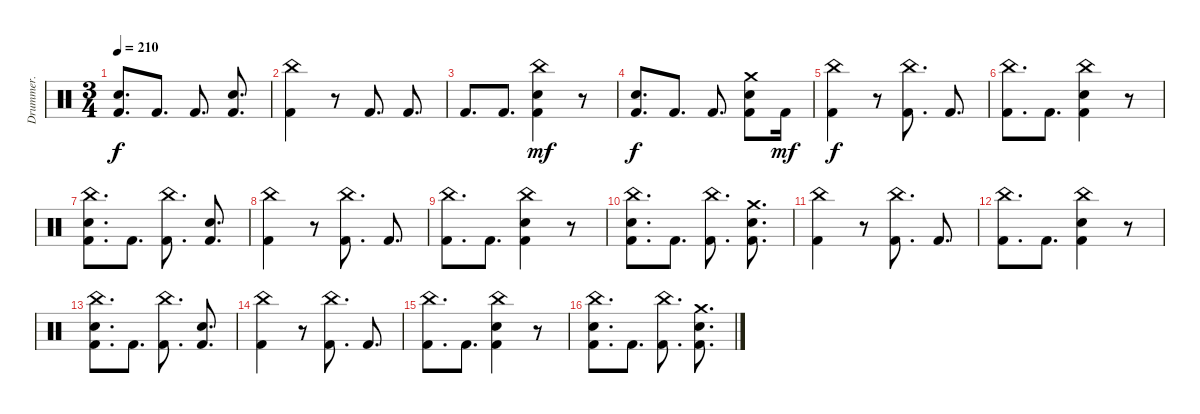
\track ("Drummer." "Drummer.") {instrument percussion}
\staff {score}
\articulation defaults
\ts (3 4)
\tempo 210
\clef neutral
\ks c
("Snare (hit)" "Kick (hit) 2").8{d dy f} "Kick (hit) 2".8{d} "Kick (hit) 2".8{d} ("Snare (hit) 2" "Kick (hit) 2").8{d} |
("China (hit)" "Kick (hit) 2").4 r.8 "Kick (hit) 2".8{d} "Kick (hit) 2".8{d} |
"Kick (hit) 2".8{d} "Kick (hit) 2".8{d} ("China (hit)" "Snare (hit) 2" "Kick (hit) 2").4{dy mf} r.8 |
("Snare (hit)" "Kick (hit) 2").8{d dy f} "Kick (hit) 2".8{d} "Kick (hit) 2".8{d} ("Crash medium (hit)" "Snare (hit) 2" "Kick (hit) 2").8 "Kick (hit) 2".16{dy mf} |
("China (hit)" "Kick (hit) 2").4{dy f} r.8 ("China (hit)" "Kick (hit) 2").8{d} "Kick (hit) 2".8{d} |
("China (hit)" "Kick (hit) 2").8{d} "Kick (hit) 2".8{d} ("China (hit)" "Snare (hit) 2" "Kick (hit) 2").4 r.8 |
("Snare (hit)" "China (hit)" "Kick (hit) 2").8{d} "Kick (hit) 2".8{d} ("China (hit)" "Kick (hit) 2").8{d} ("Snare (hit) 2" "Kick (hit) 2").8{d} |
("China (hit)" "Kick (hit) 2").4 r.8 ("China (hit)" "Kick (hit) 2").8{d} "Kick (hit) 2".8{d} |
("China (hit)" "Kick (hit) 2").8{d} "Kick (hit) 2".8{d} ("China (hit)" "Snare (hit) 2" "Kick (hit) 2").4 r.8 |
("Snare (hit)" "China (hit)" "Kick (hit) 2").8{d} "Kick (hit) 2".8{d} ("China (hit)" "Kick (hit) 2").8{d} ("Crash medium (hit)" "Snare (hit) 2" "Kick (hit) 2").8{d} |
("China (hit)" "Kick (hit) 2").4 r.8 ("China (hit)" "Kick (hit) 2").8{d} "Kick (hit) 2".8{d} |
("China (hit)" "Kick (hit) 2").8{d} "Kick (hit) 2".8{d} ("China (hit)" "Snare (hit) 2" "Kick (hit) 2").4 r.8 |
("Snare (hit)" "China (hit)" "Kick (hit) 2").8{d} "Kick (hit) 2".8{d} ("China (hit)" "Kick (hit) 2").8{d} ("Snare (hit) 2" "Kick (hit) 2").8{d} |
("China (hit)" "Kick (hit) 2").4 r.8 ("China (hit)" "Kick (hit) 2").8{d} "Kick (hit) 2".8{d} |
("China (hit)" "Kick (hit) 2").8{d} "Kick (hit) 2".8{d} ("China (hit)" "Snare (hit) 2" "Kick (hit) 2").4 r.8 |
("Snare (hit)" "China (hit)" "Kick (hit) 2").8{d} "Kick (hit) 2".8{d} ("China (hit)" "Kick (hit) 2").8{d} ("Crash medium (hit)" "Snare (hit) 2" "Kick (hit) 2").8{d}
